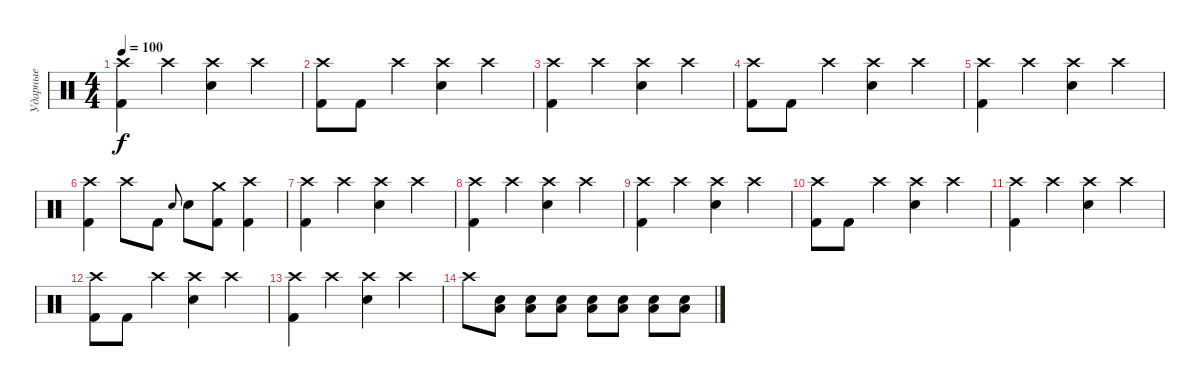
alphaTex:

\track ("Ударные" "Ударные") {instrument percussion}
\staff {score}
\articulation defaults
\ts (4 4)
\tempo 100
\clef neutral
\ks c
("Crash high (hit)" "Kick (hit) 2").4{dy f} "Crash high (hit)".4 ("Crash high (hit)" "Snare (hit) 2").4 "Crash high (hit)".4 |
("Crash high (hit)" "Kick (hit) 2").8 "Kick (hit) 2".8 "Crash high (hit)".4 ("Crash high (hit)" "Snare (hit) 2").4 "Crash high (hit)".4 |
("Crash high (hit)" "Kick (hit) 2").4 "Crash high (hit)".4 ("Crash high (hit)" "Snare (hit) 2").4 "Crash high (hit)".4 |
("Crash high (hit)" "Kick (hit) 2").8 "Kick (hit) 2".8 "Crash high (hit)".4 ("Crash high (hit)" "Snare (hit) 2").4 "Crash high (hit)".4 |
("Crash high (hit)" "Kick (hit) 2").4 "Crash high (hit)".4 ("Crash high (hit)" "Snare (hit) 2").4 "Crash high (hit)".4 |
("Crash high (hit)" "Kick (hit) 2").4 "Crash high (hit)".8 "Kick (hit) 2".8 "Snare (hit) 2".8{gr onbeat} "Snare (hit) 2".8 ("Crash medium (hit)" "Kick (hit) 2").8 ("Crash high (hit)" "Kick (hit) 2").4 |
("Crash high (hit)" "Kick (hit) 2").4 "Crash high (hit)".4 ("Crash high (hit)" "Snare (hit) 2").4 "Crash high (hit)".4 |
("Crash high (hit)" "Kick (hit) 2").4 "Crash high (hit)".4 ("Crash high (hit)" "Snare (hit) 2").4 "Crash high (hit)".4 |
("Crash high (hit)" "Kick (hit) 2").4 "Crash high (hit)".4 ("Crash high (hit)" "Snare (hit) 2").4 "Crash high (hit)".4 |
("Crash high (hit)" "Kick (hit) 2").8 "Kick (hit) 2".8 "Crash high (hit)".4 ("Crash high (hit)" "Snare (hit) 2").4 "Crash high (hit)".4 |
("Crash high (hit)" "Kick (hit) 2").4 "Crash high (hit)".4 ("Crash high (hit)" "Snare (hit) 2").4 "Crash high (hit)".4 |
("Crash high (hit)" "Kick (hit) 2").8 "Kick (hit) 2".8 "Crash high (hit)".4 ("Crash high (hit)" "Snare (hit) 2").4 "Crash high (hit)".4 |
("Crash high (hit)" "Kick (hit) 2").4 "Crash high (hit)".4 ("Crash high (hit)" "Snare (hit) 2").4 "Crash high (hit)".4 |
"Crash high (hit)".8 ("Snare (hit) 2" "Low Floor Tom (hit)").8 ("Snare (hit) 2" "Low Floor Tom (hit)").8 ("Snare (hit) 2" "Low Floor Tom (hit)").8 ("Snare (hit) 2" "Low Floor Tom (hit)").8 ("Snare (hit) 2" "Low Floor Tom (hit)").8 ("Snare (hit) 2" "Low Floor Tom (hit)").8 ("Snare (hit) 2" "Low Floor Tom (hit)").8
